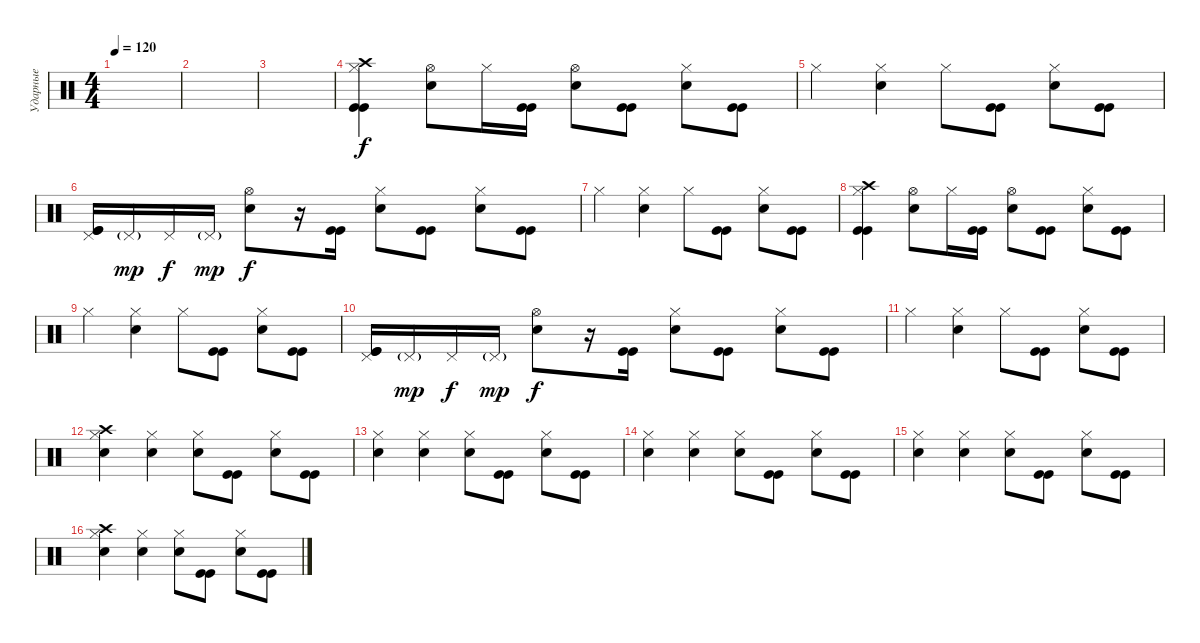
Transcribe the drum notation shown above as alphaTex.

\track ("Ударные" "Ударные") {instrument percussion}
\staff {score}
\articulation defaults
\ts (4 4)
\tempo 120
\clef neutral
\ks c
|
|
|
("Crash high (hit)" "Hi-Hat (closed)" "Kick (hit)" "Kick (hit)").4 ("Hi-Hat (open)" "Electric Snare (hit)").8 "Hi-Hat (closed)".16 ("Kick (hit)" "Kick (hit)").16 ("Hi-Hat (open)" "Electric Snare (hit)").8 ("Kick (hit)" "Kick (hit)").8 ("Hi-Hat (closed)" "Electric Snare (hit)").8 ("Kick (hit)" "Kick (hit)").8 |
"Hi-Hat (closed)".4 ("Hi-Hat (closed)" "Electric Snare (hit)").4 "Hi-Hat (closed)".8 ("Kick (hit)" "Kick (hit)").8 ("Hi-Hat (closed)" "Electric Snare (hit)").8 ("Kick (hit)" "Kick (hit)").8 |
("Pedal Hi-Hat (hit)" "Kick (hit)" "Kick (hit)").16 "Pedal Hi-Hat (hit)"{g}.16{dy mp} "Pedal Hi-Hat (hit)".16{dy f} "Pedal Hi-Hat (hit)"{g}.16{dy mp} ("Hi-Hat (open)" "Electric Snare (hit)").8{dy f} r.16 ("Kick (hit)" "Kick (hit)").16 ("Hi-Hat (closed)" "Electric Snare (hit)").8 ("Kick (hit)" "Kick (hit)").8 ("Hi-Hat (closed)" "Electric Snare (hit)").8 ("Kick (hit)" "Kick (hit)").8 |
"Hi-Hat (closed)".4 ("Hi-Hat (closed)" "Electric Snare (hit)").4 "Hi-Hat (closed)".8 ("Kick (hit)" "Kick (hit)").8 ("Hi-Hat (closed)" "Electric Snare (hit)").8 ("Kick (hit)" "Kick (hit)").8 |
("Crash high (hit)" "Hi-Hat (closed)" "Kick (hit)" "Kick (hit)").4 ("Hi-Hat (open)" "Electric Snare (hit)").8 "Hi-Hat (closed)".16 ("Kick (hit)" "Kick (hit)").16 ("Hi-Hat (open)" "Electric Snare (hit)").8 ("Kick (hit)" "Kick (hit)").8 ("Hi-Hat (closed)" "Electric Snare (hit)").8 ("Kick (hit)" "Kick (hit)").8 |
"Hi-Hat (closed)".4 ("Hi-Hat (closed)" "Electric Snare (hit)").4 "Hi-Hat (closed)".8 ("Kick (hit)" "Kick (hit)").8 ("Hi-Hat (closed)" "Electric Snare (hit)").8 ("Kick (hit)" "Kick (hit)").8 |
("Pedal Hi-Hat (hit)" "Kick (hit)" "Kick (hit)").16 "Pedal Hi-Hat (hit)"{g}.16{dy mp} "Pedal Hi-Hat (hit)".16{dy f} "Pedal Hi-Hat (hit)"{g}.16{dy mp} ("Hi-Hat (open)" "Electric Snare (hit)").8{dy f} r.16 ("Kick (hit)" "Kick (hit)").16 ("Hi-Hat (closed)" "Electric Snare (hit)").8 ("Kick (hit)" "Kick (hit)").8 ("Hi-Hat (closed)" "Electric Snare (hit)").8 ("Kick (hit)" "Kick (hit)").8 |
"Hi-Hat (closed)".4 ("Hi-Hat (closed)" "Electric Snare (hit)").4 "Hi-Hat (closed)".8 ("Kick (hit)" "Kick (hit)").8 ("Hi-Hat (closed)" "Electric Snare (hit)").8 ("Kick (hit)" "Kick (hit)").8 |
("Crash high (hit)" "Hi-Hat (closed)" "Electric Snare (hit)").4 ("Hi-Hat (closed)" "Electric Snare (hit)").4 ("Hi-Hat (closed)" "Electric Snare (hit)").8 ("Kick (hit)" "Kick (hit)").8 ("Hi-Hat (closed)" "Electric Snare (hit)").8 ("Kick (hit)" "Kick (hit)").8 |
("Hi-Hat (closed)" "Electric Snare (hit)").4 ("Hi-Hat (closed)" "Electric Snare (hit)").4 ("Hi-Hat (closed)" "Electric Snare (hit)").8 ("Kick (hit)" "Kick (hit)").8 ("Hi-Hat (closed)" "Electric Snare (hit)").8 ("Kick (hit)" "Kick (hit)").8 |
("Hi-Hat (closed)" "Electric Snare (hit)").4 ("Hi-Hat (closed)" "Electric Snare (hit)").4 ("Hi-Hat (closed)" "Electric Snare (hit)").8 ("Kick (hit)" "Kick (hit)").8 ("Hi-Hat (closed)" "Electric Snare (hit)").8 ("Kick (hit)" "Kick (hit)").8 |
("Hi-Hat (closed)" "Electric Snare (hit)").4 ("Hi-Hat (closed)" "Electric Snare (hit)").4 ("Hi-Hat (closed)" "Electric Snare (hit)").8 ("Kick (hit)" "Kick (hit)").8 ("Hi-Hat (closed)" "Electric Snare (hit)").8 ("Kick (hit)" "Kick (hit)").8 |
("Crash high (hit)" "Hi-Hat (closed)" "Electric Snare (hit)").4 ("Hi-Hat (closed)" "Electric Snare (hit)").4 ("Hi-Hat (closed)" "Electric Snare (hit)").8 ("Kick (hit)" "Kick (hit)").8 ("Hi-Hat (closed)" "Electric Snare (hit)").8 ("Kick (hit)" "Kick (hit)").8
